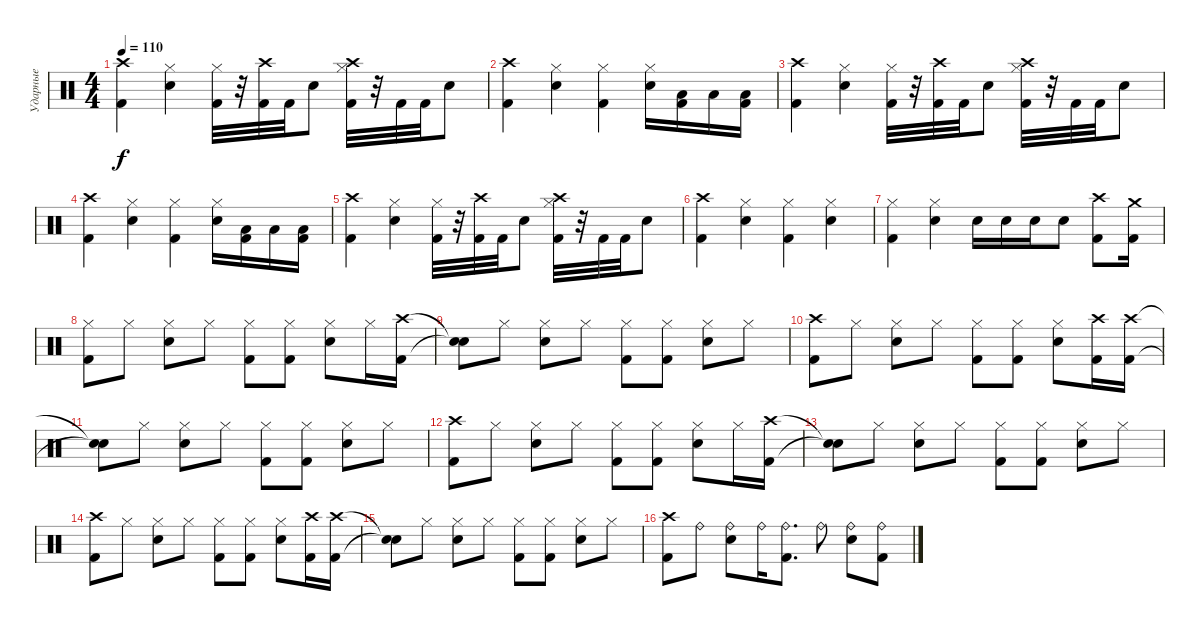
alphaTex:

\track ("Ударные" "Ударные") {instrument percussion}
\staff {score}
\articulation defaults
\ts (4 4)
\tempo 110
\clef neutral
\ks c
("Crash high (hit)" "Kick (hit) 2").4{dy f} ("Hi-Hat (closed)" "Electric Snare (hit)").4 ("Kick (hit) 2" "Hi-Hat (closed)").32 r.32 ("Kick (hit) 2" "Crash high (hit)").32 "Kick (hit) 2".32 "Electric Snare (hit)".8 ("Hi-Hat (closed)" "Kick (hit) 2" "Crash high (hit)").32 r.32 "Kick (hit) 2".32 "Kick (hit) 2".32 "Electric Snare (hit)".8 |
("Crash high (hit)" "Kick (hit) 2").4 ("Hi-Hat (closed)" "Electric Snare (hit)").4 ("Kick (hit) 2" "Hi-Hat (closed)").4 ("Hi-Hat (closed)" "Electric Snare (hit)").16 ("Kick (hit) 2" "Low Tom (hit)").16 "Low Tom (hit)".16 ("Kick (hit) 2" "Low Tom (hit)").16 |
("Crash high (hit)" "Kick (hit) 2").4 ("Hi-Hat (closed)" "Electric Snare (hit)").4 ("Kick (hit) 2" "Hi-Hat (closed)").32 r.32 ("Kick (hit) 2" "Crash high (hit)").32 "Kick (hit) 2".32 "Electric Snare (hit)".8 ("Hi-Hat (closed)" "Kick (hit) 2" "Crash high (hit)").32 r.32 "Kick (hit) 2".32 "Kick (hit) 2".32 "Electric Snare (hit)".8 |
("Crash high (hit)" "Kick (hit) 2").4 ("Hi-Hat (closed)" "Electric Snare (hit)").4 ("Kick (hit) 2" "Hi-Hat (closed)").4 ("Hi-Hat (closed)" "Electric Snare (hit)").16 ("Kick (hit) 2" "Low Tom (hit)").16 "Low Tom (hit)".16 ("Kick (hit) 2" "Low Tom (hit)").16 |
("Crash high (hit)" "Kick (hit) 2").4 ("Hi-Hat (closed)" "Electric Snare (hit)").4 ("Kick (hit) 2" "Hi-Hat (closed)").32 r.32 ("Kick (hit) 2" "Crash high (hit)").32 "Kick (hit) 2".32 "Electric Snare (hit)".8 ("Hi-Hat (closed)" "Kick (hit) 2" "Crash high (hit)").32 r.32 "Kick (hit) 2".32 "Kick (hit) 2".32 "Electric Snare (hit)".8 |
("Crash high (hit)" "Kick (hit) 2").4 ("Hi-Hat (closed)" "Electric Snare (hit)").4 ("Kick (hit) 2" "Hi-Hat (closed)").4 ("Electric Snare (hit)" "Hi-Hat (closed)").4 |
("Hi-Hat (closed)" "Kick (hit) 2").4 ("Hi-Hat (closed)" "Electric Snare (hit)").4 "Electric Snare (hit)".16 "Electric Snare (hit)".16 "Electric Snare (hit)".16 "Electric Snare (hit)".8 ("Kick (hit) 2" "Crash high (hit)").8 ("Kick (hit) 2" "Crash medium (hit)").16 |
("Kick (hit) 2" "Hi-Hat (closed)").8 "Hi-Hat (closed)".8 ("Electric Snare (hit)" "Hi-Hat (closed)").8 "Hi-Hat (closed)".8 ("Kick (hit) 2" "Hi-Hat (closed)").8 ("Kick (hit) 2" "Hi-Hat (closed)").8 ("Electric Snare (hit)" "Hi-Hat (closed)").8 "Hi-Hat (closed)".16 ("Kick (hit) 2" "Crash high (hit)").16 |
("Snare (hit)"{t} "Snare (hit)"{t}).8 "Hi-Hat (closed)".8 ("Hi-Hat (closed)" "Electric Snare (hit)").8 "Hi-Hat (closed)".8 ("Hi-Hat (closed)" "Kick (hit) 2").8 ("Hi-Hat (closed)" "Kick (hit) 2").8 ("Hi-Hat (closed)" "Electric Snare (hit)").8 "Hi-Hat (closed)".8 |
("Kick (hit) 2" "Crash high (hit)").8 "Hi-Hat (closed)".8 ("Electric Snare (hit)" "Hi-Hat (closed)").8 "Hi-Hat (closed)".8 ("Kick (hit) 2" "Hi-Hat (closed)").8 ("Kick (hit) 2" "Hi-Hat (closed)").8 ("Electric Snare (hit)" "Hi-Hat (closed)").8 ("Kick (hit) 2" "Crash high (hit)").16 ("Kick (hit) 2" "Crash high (hit)").16 |
("Snare (hit)"{t} "Snare (hit)"{t}).8 "Hi-Hat (closed)".8 ("Hi-Hat (closed)" "Electric Snare (hit)").8 "Hi-Hat (closed)".8 ("Hi-Hat (closed)" "Kick (hit) 2").8 ("Hi-Hat (closed)" "Kick (hit) 2").8 ("Hi-Hat (closed)" "Electric Snare (hit)").8 "Hi-Hat (closed)".8 |
("Kick (hit) 2" "Crash high (hit)").8 "Hi-Hat (closed)".8 ("Electric Snare (hit)" "Hi-Hat (closed)").8 "Hi-Hat (closed)".8 ("Kick (hit) 2" "Hi-Hat (closed)").8 ("Kick (hit) 2" "Hi-Hat (closed)").8 ("Electric Snare (hit)" "Hi-Hat (closed)").8 "Hi-Hat (closed)".16 ("Kick (hit) 2" "Crash high (hit)").16 |
("Snare (hit)"{t} "Snare (hit)"{t}).8 "Hi-Hat (closed)".8 ("Hi-Hat (closed)" "Electric Snare (hit)").8 "Hi-Hat (closed)".8 ("Hi-Hat (closed)" "Kick (hit) 2").8 ("Hi-Hat (closed)" "Kick (hit) 2").8 ("Hi-Hat (closed)" "Electric Snare (hit)").8 "Hi-Hat (closed)".8 |
("Kick (hit) 2" "Crash high (hit)").8 "Hi-Hat (closed)".8 ("Electric Snare (hit)" "Hi-Hat (closed)").8 "Hi-Hat (closed)".8 ("Kick (hit) 2" "Hi-Hat (closed)").8 ("Kick (hit) 2" "Hi-Hat (closed)").8 ("Electric Snare (hit)" "Hi-Hat (closed)").8 ("Kick (hit) 2" "Crash high (hit)").16 ("Kick (hit) 2" "Crash high (hit)").16 |
("Snare (hit)"{t} "Snare (hit)"{t}).8 "Hi-Hat (closed)".8 ("Hi-Hat (closed)" "Electric Snare (hit)").8 "Hi-Hat (closed)".8 ("Hi-Hat (closed)" "Kick (hit) 2").8 ("Hi-Hat (closed)" "Kick (hit) 2").8 ("Hi-Hat (closed)" "Electric Snare (hit)").8 "Hi-Hat (closed)".8 |
("Kick (hit) 2" "Crash high (hit)").8 "Ride (bell)".8 ("Electric Snare (hit)" "Ride (bell)").8 "Ride (bell)".16 ("Kick (hit) 2" "Ride (bell)").8{d} "Ride (bell)".8 ("Electric Snare (hit)" "Ride (bell)").8 ("Kick (hit) 2" "Ride (bell)").8
